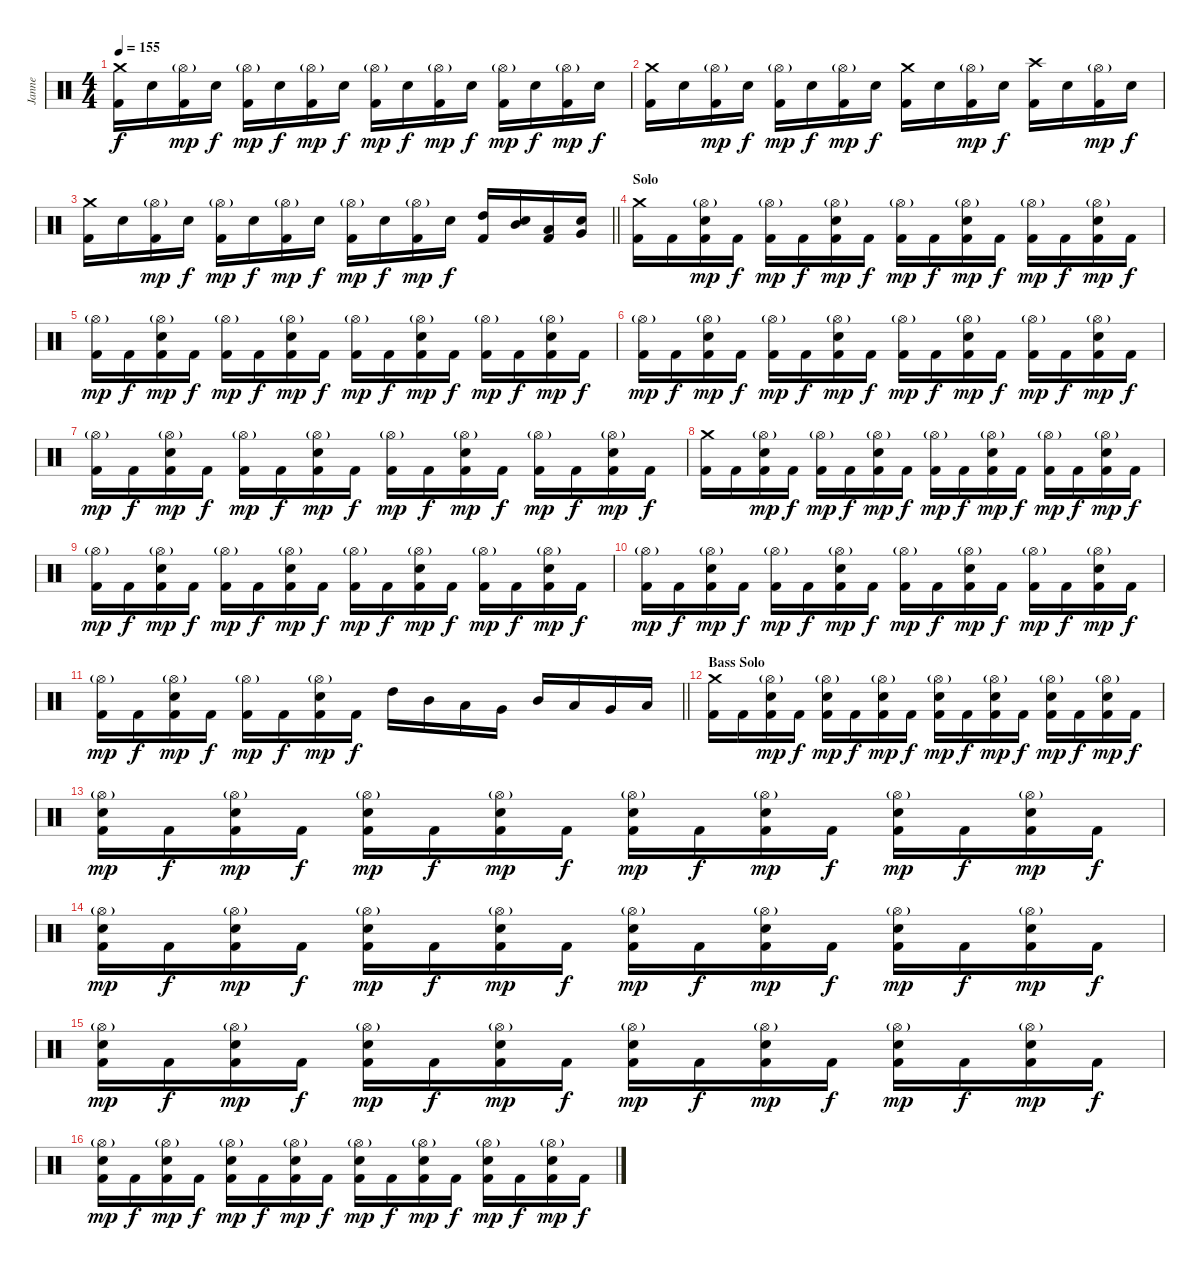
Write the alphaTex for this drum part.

\track ("Janne" "Janne") {instrument percussion}
\staff {score}
\articulation defaults
\ts (4 4)
\tempo 155
\clef neutral
\ks c
("Kick (hit) 2" "Crash medium (hit)").16{dy f} "Snare (hit) 2".16 ("Kick (hit) 2" "Hi-Hat (open)"{g}).16{dy mp} "Snare (hit) 2".16{dy f} ("Kick (hit) 2" "Hi-Hat (open)"{g}).16{dy mp} "Snare (hit) 2".16{dy f} ("Kick (hit) 2" "Hi-Hat (open)"{g}).16{dy mp} "Snare (hit) 2".16{dy f} ("Kick (hit) 2" "Hi-Hat (open)"{g}).16{dy mp} "Snare (hit) 2".16{dy f} ("Kick (hit) 2" "Hi-Hat (open)"{g}).16{dy mp} "Snare (hit) 2".16{dy f} ("Kick (hit) 2" "Hi-Hat (open)"{g}).16{dy mp} "Snare (hit) 2".16{dy f} ("Kick (hit) 2" "Hi-Hat (open)"{g}).16{dy mp} "Snare (hit) 2".16{dy f} |
("Kick (hit) 2" "Crash medium (hit)").16 "Snare (hit) 2".16 ("Kick (hit) 2" "Hi-Hat (open)"{g}).16{dy mp} "Snare (hit) 2".16{dy f} ("Kick (hit) 2" "Hi-Hat (open)"{g}).16{dy mp} "Snare (hit) 2".16{dy f} ("Kick (hit) 2" "Hi-Hat (open)"{g}).16{dy mp} "Snare (hit) 2".16{dy f} ("Kick (hit) 2" "Crash medium (hit)").16 "Snare (hit) 2".16 ("Kick (hit) 2" "Hi-Hat (open)"{g}).16{dy mp} "Snare (hit) 2".16{dy f} ("Kick (hit) 2" "Crash high (hit)").16 "Snare (hit) 2".16 ("Kick (hit) 2" "Hi-Hat (open)"{g}).16{dy mp} "Snare (hit) 2".16{dy f} |
\barLineRight lightlight
("Kick (hit) 2" "Crash medium (hit)").16 "Snare (hit) 2".16 ("Kick (hit) 2" "Hi-Hat (open)"{g}).16{dy mp} "Snare (hit) 2".16{dy f} ("Kick (hit) 2" "Hi-Hat (open)"{g}).16{dy mp} "Snare (hit) 2".16{dy f} ("Kick (hit) 2" "Hi-Hat (open)"{g}).16{dy mp} "Snare (hit) 2".16{dy f} ("Kick (hit) 2" "Hi-Hat (open)"{g}).16{dy mp} "Snare (hit) 2".16{dy f} ("Kick (hit) 2" "Hi-Hat (open)"{g}).16{dy mp} "Snare (hit) 2".16{dy f} ("Kick (hit) 2" "High Tom (hit)").16 ("Snare (hit) 2" "Mid Tom (hit)").16 ("Kick (hit) 2" "Low Tom (hit)").16 ("Snare (hit) 2" "Very Low Tom (hit)").16 |
\section ("" "Solo")
("Kick (hit) 2" "Crash medium (hit)").16 "Kick (hit) 2".16 ("Kick (hit) 2" "Snare (hit) 2" "Hi-Hat (open)"{g}).16{dy mp} "Kick (hit) 2".16{dy f} ("Kick (hit) 2" "Hi-Hat (open)"{g}).16{dy mp} "Kick (hit) 2".16{dy f} ("Kick (hit) 2" "Snare (hit) 2" "Hi-Hat (open)"{g}).16{dy mp} "Kick (hit) 2".16{dy f} ("Kick (hit) 2" "Hi-Hat (open)"{g}).16{dy mp} "Kick (hit) 2".16{dy f} ("Kick (hit) 2" "Snare (hit) 2" "Hi-Hat (open)"{g}).16{dy mp} "Kick (hit) 2".16{dy f} ("Kick (hit) 2" "Hi-Hat (open)"{g}).16{dy mp} "Kick (hit) 2".16{dy f} ("Kick (hit) 2" "Snare (hit) 2" "Hi-Hat (open)"{g}).16{dy mp} "Kick (hit) 2".16{dy f} |
("Kick (hit) 2" "Hi-Hat (open)"{g}).16{dy mp} "Kick (hit) 2".16{dy f} ("Kick (hit) 2" "Snare (hit) 2" "Hi-Hat (open)"{g}).16{dy mp} "Kick (hit) 2".16{dy f} ("Kick (hit) 2" "Hi-Hat (open)"{g}).16{dy mp} "Kick (hit) 2".16{dy f} ("Kick (hit) 2" "Snare (hit) 2" "Hi-Hat (open)"{g}).16{dy mp} "Kick (hit) 2".16{dy f} ("Kick (hit) 2" "Hi-Hat (open)"{g}).16{dy mp} "Kick (hit) 2".16{dy f} ("Kick (hit) 2" "Snare (hit) 2" "Hi-Hat (open)"{g}).16{dy mp} "Kick (hit) 2".16{dy f} ("Kick (hit) 2" "Hi-Hat (open)"{g}).16{dy mp} "Kick (hit) 2".16{dy f} ("Kick (hit) 2" "Snare (hit) 2" "Hi-Hat (open)"{g}).16{dy mp} "Kick (hit) 2".16{dy f} |
("Kick (hit) 2" "Hi-Hat (open)"{g}).16{dy mp} "Kick (hit) 2".16{dy f} ("Kick (hit) 2" "Snare (hit) 2" "Hi-Hat (open)"{g}).16{dy mp} "Kick (hit) 2".16{dy f} ("Kick (hit) 2" "Hi-Hat (open)"{g}).16{dy mp} "Kick (hit) 2".16{dy f} ("Kick (hit) 2" "Snare (hit) 2" "Hi-Hat (open)"{g}).16{dy mp} "Kick (hit) 2".16{dy f} ("Kick (hit) 2" "Hi-Hat (open)"{g}).16{dy mp} "Kick (hit) 2".16{dy f} ("Kick (hit) 2" "Snare (hit) 2" "Hi-Hat (open)"{g}).16{dy mp} "Kick (hit) 2".16{dy f} ("Kick (hit) 2" "Hi-Hat (open)"{g}).16{dy mp} "Kick (hit) 2".16{dy f} ("Kick (hit) 2" "Snare (hit) 2" "Hi-Hat (open)"{g}).16{dy mp} "Kick (hit) 2".16{dy f} |
("Kick (hit) 2" "Hi-Hat (open)"{g}).16{dy mp} "Kick (hit) 2".16{dy f} ("Kick (hit) 2" "Snare (hit) 2" "Hi-Hat (open)"{g}).16{dy mp} "Kick (hit) 2".16{dy f} ("Kick (hit) 2" "Hi-Hat (open)"{g}).16{dy mp} "Kick (hit) 2".16{dy f} ("Kick (hit) 2" "Snare (hit) 2" "Hi-Hat (open)"{g}).16{dy mp} "Kick (hit) 2".16{dy f} ("Kick (hit) 2" "Hi-Hat (open)"{g}).16{dy mp} "Kick (hit) 2".16{dy f} ("Kick (hit) 2" "Snare (hit) 2" "Hi-Hat (open)"{g}).16{dy mp} "Kick (hit) 2".16{dy f} ("Kick (hit) 2" "Hi-Hat (open)"{g}).16{dy mp} "Kick (hit) 2".16{dy f} ("Kick (hit) 2" "Snare (hit) 2" "Hi-Hat (open)"{g}).16{dy mp} "Kick (hit) 2".16{dy f} |
("Kick (hit) 2" "Crash medium (hit)").16 "Kick (hit) 2".16 ("Kick (hit) 2" "Snare (hit) 2" "Hi-Hat (open)"{g}).16{dy mp} "Kick (hit) 2".16{dy f} ("Kick (hit) 2" "Hi-Hat (open)"{g}).16{dy mp} "Kick (hit) 2".16{dy f} ("Kick (hit) 2" "Snare (hit) 2" "Hi-Hat (open)"{g}).16{dy mp} "Kick (hit) 2".16{dy f} ("Kick (hit) 2" "Hi-Hat (open)"{g}).16{dy mp} "Kick (hit) 2".16{dy f} ("Kick (hit) 2" "Snare (hit) 2" "Hi-Hat (open)"{g}).16{dy mp} "Kick (hit) 2".16{dy f} ("Kick (hit) 2" "Hi-Hat (open)"{g}).16{dy mp} "Kick (hit) 2".16{dy f} ("Kick (hit) 2" "Snare (hit) 2" "Hi-Hat (open)"{g}).16{dy mp} "Kick (hit) 2".16{dy f} |
("Kick (hit) 2" "Hi-Hat (open)"{g}).16{dy mp} "Kick (hit) 2".16{dy f} ("Kick (hit) 2" "Snare (hit) 2" "Hi-Hat (open)"{g}).16{dy mp} "Kick (hit) 2".16{dy f} ("Kick (hit) 2" "Hi-Hat (open)"{g}).16{dy mp} "Kick (hit) 2".16{dy f} ("Kick (hit) 2" "Snare (hit) 2" "Hi-Hat (open)"{g}).16{dy mp} "Kick (hit) 2".16{dy f} ("Kick (hit) 2" "Hi-Hat (open)"{g}).16{dy mp} "Kick (hit) 2".16{dy f} ("Kick (hit) 2" "Snare (hit) 2" "Hi-Hat (open)"{g}).16{dy mp} "Kick (hit) 2".16{dy f} ("Kick (hit) 2" "Hi-Hat (open)"{g}).16{dy mp} "Kick (hit) 2".16{dy f} ("Kick (hit) 2" "Snare (hit) 2" "Hi-Hat (open)"{g}).16{dy mp} "Kick (hit) 2".16{dy f} |
("Kick (hit) 2" "Hi-Hat (open)"{g}).16{dy mp} "Kick (hit) 2".16{dy f} ("Kick (hit) 2" "Snare (hit) 2" "Hi-Hat (open)"{g}).16{dy mp} "Kick (hit) 2".16{dy f} ("Kick (hit) 2" "Hi-Hat (open)"{g}).16{dy mp} "Kick (hit) 2".16{dy f} ("Kick (hit) 2" "Snare (hit) 2" "Hi-Hat (open)"{g}).16{dy mp} "Kick (hit) 2".16{dy f} ("Kick (hit) 2" "Hi-Hat (open)"{g}).16{dy mp} "Kick (hit) 2".16{dy f} ("Kick (hit) 2" "Snare (hit) 2" "Hi-Hat (open)"{g}).16{dy mp} "Kick (hit) 2".16{dy f} ("Kick (hit) 2" "Hi-Hat (open)"{g}).16{dy mp} "Kick (hit) 2".16{dy f} ("Kick (hit) 2" "Snare (hit) 2" "Hi-Hat (open)"{g}).16{dy mp} "Kick (hit) 2".16{dy f} |
\barLineRight lightlight
("Kick (hit) 2" "Hi-Hat (open)"{g}).16{dy mp} "Kick (hit) 2".16{dy f} ("Kick (hit) 2" "Snare (hit) 2" "Hi-Hat (open)"{g}).16{dy mp} "Kick (hit) 2".16{dy f} ("Kick (hit) 2" "Hi-Hat (open)"{g}).16{dy mp} "Kick (hit) 2".16{dy f} ("Kick (hit) 2" "Snare (hit) 2" "Hi-Hat (open)"{g}).16{dy mp} "Kick (hit) 2".16{dy f} "High Tom (hit)".16 "Mid Tom (hit)".16 "Low Tom (hit)".16 "Very Low Tom (hit)".16 "Mid Tom (hit)".16 "Low Tom (hit)".16 "Very Low Tom (hit)".16 "Low Floor Tom (hit)".16 |
\section ("" "Bass Solo")
("Kick (hit) 2" "Crash medium (hit)").16 "Kick (hit) 2".16 ("Kick (hit) 2" "Snare (hit) 2" "Hi-Hat (open)"{g}).16{dy mp} "Kick (hit) 2".16{dy f} ("Kick (hit) 2" "Snare (hit) 2" "Hi-Hat (open)"{g}).16{dy mp} "Kick (hit) 2".16{dy f} ("Kick (hit) 2" "Snare (hit) 2" "Hi-Hat (open)"{g}).16{dy mp} "Kick (hit) 2".16{dy f} ("Kick (hit) 2" "Snare (hit) 2" "Hi-Hat (open)"{g}).16{dy mp} "Kick (hit) 2".16{dy f} ("Kick (hit) 2" "Snare (hit) 2" "Hi-Hat (open)"{g}).16{dy mp} "Kick (hit) 2".16{dy f} ("Kick (hit) 2" "Snare (hit) 2" "Hi-Hat (open)"{g}).16{dy mp} "Kick (hit) 2".16{dy f} ("Kick (hit) 2" "Snare (hit) 2" "Hi-Hat (open)"{g}).16{dy mp} "Kick (hit) 2".16{dy f} |
("Kick (hit) 2" "Snare (hit) 2" "Hi-Hat (open)"{g}).16{dy mp} "Kick (hit) 2".16{dy f} ("Kick (hit) 2" "Snare (hit) 2" "Hi-Hat (open)"{g}).16{dy mp} "Kick (hit) 2".16{dy f} ("Kick (hit) 2" "Snare (hit) 2" "Hi-Hat (open)"{g}).16{dy mp} "Kick (hit) 2".16{dy f} ("Kick (hit) 2" "Snare (hit) 2" "Hi-Hat (open)"{g}).16{dy mp} "Kick (hit) 2".16{dy f} ("Kick (hit) 2" "Snare (hit) 2" "Hi-Hat (open)"{g}).16{dy mp} "Kick (hit) 2".16{dy f} ("Kick (hit) 2" "Snare (hit) 2" "Hi-Hat (open)"{g}).16{dy mp} "Kick (hit) 2".16{dy f} ("Kick (hit) 2" "Snare (hit) 2" "Hi-Hat (open)"{g}).16{dy mp} "Kick (hit) 2".16{dy f} ("Kick (hit) 2" "Snare (hit) 2" "Hi-Hat (open)"{g}).16{dy mp} "Kick (hit) 2".16{dy f} |
("Kick (hit) 2" "Snare (hit) 2" "Hi-Hat (open)"{g}).16{dy mp} "Kick (hit) 2".16{dy f} ("Kick (hit) 2" "Snare (hit) 2" "Hi-Hat (open)"{g}).16{dy mp} "Kick (hit) 2".16{dy f} ("Kick (hit) 2" "Snare (hit) 2" "Hi-Hat (open)"{g}).16{dy mp} "Kick (hit) 2".16{dy f} ("Kick (hit) 2" "Snare (hit) 2" "Hi-Hat (open)"{g}).16{dy mp} "Kick (hit) 2".16{dy f} ("Kick (hit) 2" "Snare (hit) 2" "Hi-Hat (open)"{g}).16{dy mp} "Kick (hit) 2".16{dy f} ("Kick (hit) 2" "Snare (hit) 2" "Hi-Hat (open)"{g}).16{dy mp} "Kick (hit) 2".16{dy f} ("Kick (hit) 2" "Snare (hit) 2" "Hi-Hat (open)"{g}).16{dy mp} "Kick (hit) 2".16{dy f} ("Kick (hit) 2" "Snare (hit) 2" "Hi-Hat (open)"{g}).16{dy mp} "Kick (hit) 2".16{dy f} |
("Kick (hit) 2" "Snare (hit) 2" "Hi-Hat (open)"{g}).16{dy mp} "Kick (hit) 2".16{dy f} ("Kick (hit) 2" "Snare (hit) 2" "Hi-Hat (open)"{g}).16{dy mp} "Kick (hit) 2".16{dy f} ("Kick (hit) 2" "Snare (hit) 2" "Hi-Hat (open)"{g}).16{dy mp} "Kick (hit) 2".16{dy f} ("Kick (hit) 2" "Snare (hit) 2" "Hi-Hat (open)"{g}).16{dy mp} "Kick (hit) 2".16{dy f} ("Kick (hit) 2" "Snare (hit) 2" "Hi-Hat (open)"{g}).16{dy mp} "Kick (hit) 2".16{dy f} ("Kick (hit) 2" "Snare (hit) 2" "Hi-Hat (open)"{g}).16{dy mp} "Kick (hit) 2".16{dy f} ("Kick (hit) 2" "Snare (hit) 2" "Hi-Hat (open)"{g}).16{dy mp} "Kick (hit) 2".16{dy f} ("Kick (hit) 2" "Snare (hit) 2" "Hi-Hat (open)"{g}).16{dy mp} "Kick (hit) 2".16{dy f} |
("Kick (hit) 2" "Snare (hit) 2" "Hi-Hat (open)"{g}).16{dy mp} "Kick (hit) 2".16{dy f} ("Kick (hit) 2" "Snare (hit) 2" "Hi-Hat (open)"{g}).16{dy mp} "Kick (hit) 2".16{dy f} ("Kick (hit) 2" "Snare (hit) 2" "Hi-Hat (open)"{g}).16{dy mp} "Kick (hit) 2".16{dy f} ("Kick (hit) 2" "Snare (hit) 2" "Hi-Hat (open)"{g}).16{dy mp} "Kick (hit) 2".16{dy f} ("Kick (hit) 2" "Snare (hit) 2" "Hi-Hat (open)"{g}).16{dy mp} "Kick (hit) 2".16{dy f} ("Kick (hit) 2" "Snare (hit) 2" "Hi-Hat (open)"{g}).16{dy mp} "Kick (hit) 2".16{dy f} ("Kick (hit) 2" "Snare (hit) 2" "Hi-Hat (open)"{g}).16{dy mp} "Kick (hit) 2".16{dy f} ("Kick (hit) 2" "Snare (hit) 2" "Hi-Hat (open)"{g}).16{dy mp} "Kick (hit) 2".16{dy f}
